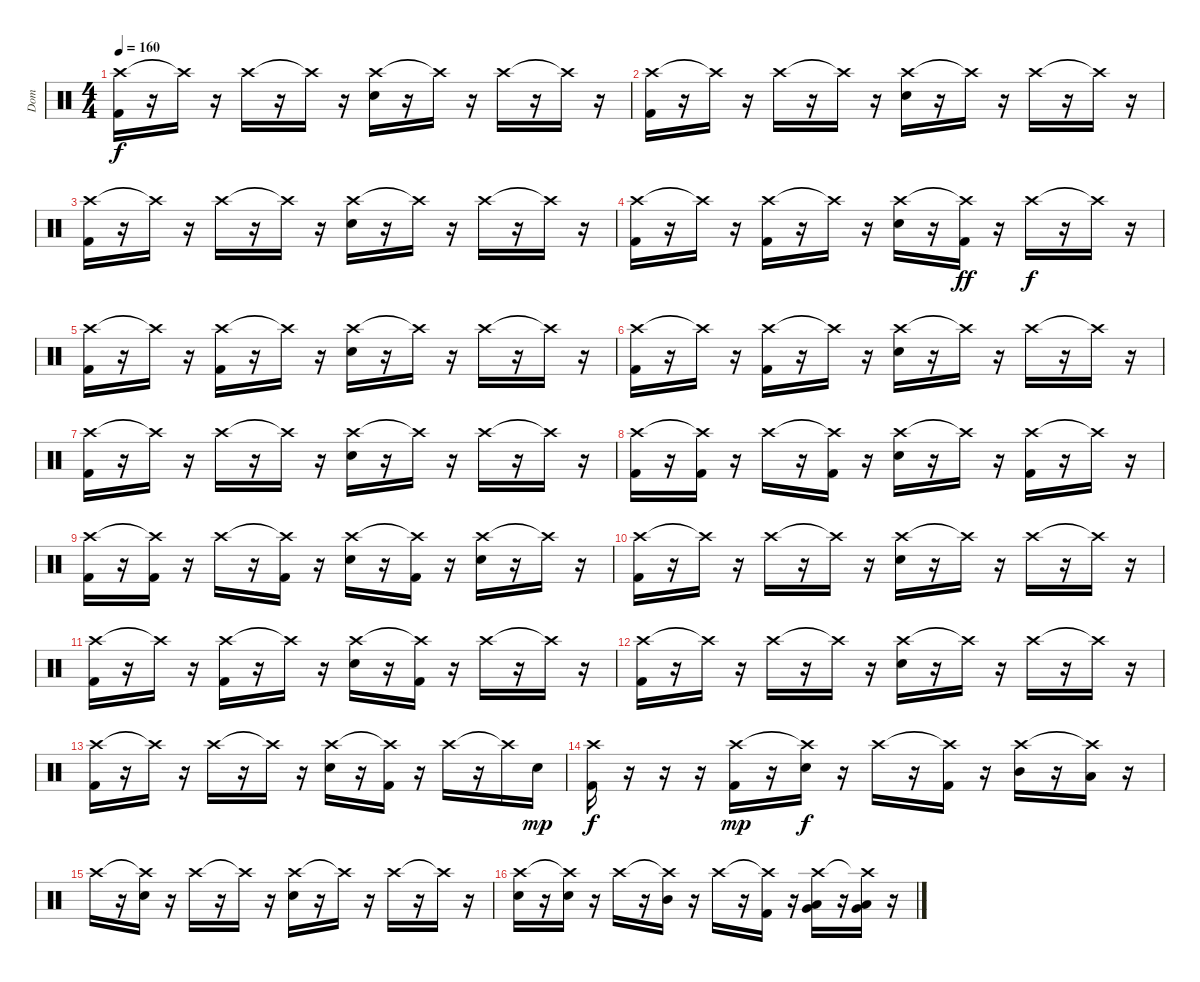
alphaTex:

\track ("Dom" "Dom") {instrument percussion}
\staff {score}
\articulation defaults
\ts (4 4)
\tempo 160
\clef neutral
\ks c
("Crash high (hit)" "Kick (hit) 2").16{dy f} r.16 "Crash high (hit)"{t}.16 r.16 "Crash high (hit)".16 r.16 "Crash high (hit)"{t}.16 r.16 ("Crash high (hit)" "Electric Snare (hit)").16 r.16 "Crash high (hit)"{t}.16 r.16 "Crash high (hit)".16 r.16 "Crash high (hit)"{t}.16 r.16 |
("Crash high (hit)" "Kick (hit) 2").16 r.16 "Crash high (hit)"{t}.16 r.16 "Crash high (hit)".16 r.16 "Crash high (hit)"{t}.16 r.16 ("Crash high (hit)" "Electric Snare (hit)").16 r.16 "Crash high (hit)"{t}.16 r.16 "Crash high (hit)".16 r.16 "Crash high (hit)"{t}.16 r.16 |
("Crash high (hit)" "Kick (hit) 2").16 r.16 "Crash high (hit)"{t}.16 r.16 "Crash high (hit)".16 r.16 "Crash high (hit)"{t}.16 r.16 ("Crash high (hit)" "Electric Snare (hit)").16 r.16 "Crash high (hit)"{t}.16 r.16 "Crash high (hit)".16 r.16 "Crash high (hit)"{t}.16 r.16 |
("Crash high (hit)" "Kick (hit) 2").16 r.16 "Crash high (hit)"{t}.16 r.16 ("Crash high (hit)" "Kick (hit) 2").16 r.16 "Crash high (hit)"{t}.16 r.16 ("Crash high (hit)" "Electric Snare (hit)").16 r.16 ("Crash high (hit)"{t} "Kick (hit) 2").16{dy ff} r.16 "Crash high (hit)".16{dy f} r.16 "Crash high (hit)"{t}.16 r.16 |
("Crash high (hit)" "Kick (hit) 2").16 r.16 "Crash high (hit)"{t}.16 r.16 ("Crash high (hit)" "Kick (hit) 2").16 r.16 "Crash high (hit)"{t}.16 r.16 ("Crash high (hit)" "Electric Snare (hit)").16 r.16 "Crash high (hit)"{t}.16 r.16 "Crash high (hit)".16 r.16 "Crash high (hit)"{t}.16 r.16 |
("Crash high (hit)" "Kick (hit) 2").16 r.16 "Crash high (hit)"{t}.16 r.16 ("Crash high (hit)" "Kick (hit) 2").16 r.16 "Crash high (hit)"{t}.16 r.16 ("Crash high (hit)" "Electric Snare (hit)").16 r.16 "Crash high (hit)"{t}.16 r.16 "Crash high (hit)".16 r.16 "Crash high (hit)"{t}.16 r.16 |
("Crash high (hit)" "Kick (hit) 2").16 r.16 "Crash high (hit)"{t}.16 r.16 "Crash high (hit)".16 r.16 "Crash high (hit)"{t}.16 r.16 ("Crash high (hit)" "Electric Snare (hit)").16 r.16 "Crash high (hit)"{t}.16 r.16 "Crash high (hit)".16 r.16 "Crash high (hit)"{t}.16 r.16 |
("Crash high (hit)" "Kick (hit) 2").16 r.16 ("Crash high (hit)"{t} "Kick (hit) 2").16 r.16 "Crash high (hit)".16 r.16 ("Crash high (hit)"{t} "Kick (hit) 2").16 r.16 ("Crash high (hit)" "Electric Snare (hit)").16 r.16 "Crash high (hit)"{t}.16 r.16 ("Crash high (hit)" "Kick (hit) 2").16 r.16 "Crash high (hit)"{t}.16 r.16 |
("Crash high (hit)" "Kick (hit) 2").16 r.16 ("Crash high (hit)"{t} "Kick (hit) 2").16 r.16 "Crash high (hit)".16 r.16 ("Crash high (hit)"{t} "Kick (hit) 2").16 r.16 ("Crash high (hit)" "Electric Snare (hit)").16 r.16 ("Crash high (hit)"{t} "Kick (hit) 2").16 r.16 ("Crash high (hit)" "Electric Snare (hit)").16 r.16 "Crash high (hit)"{t}.16 r.16 |
("Crash high (hit)" "Kick (hit) 2").16 r.16 "Crash high (hit)"{t}.16 r.16 "Crash high (hit)".16 r.16 "Crash high (hit)"{t}.16 r.16 ("Crash high (hit)" "Electric Snare (hit)").16 r.16 "Crash high (hit)"{t}.16 r.16 "Crash high (hit)".16 r.16 "Crash high (hit)"{t}.16 r.16 |
("Crash high (hit)" "Kick (hit) 2").16 r.16 "Crash high (hit)"{t}.16 r.16 ("Crash high (hit)" "Kick (hit) 2").16 r.16 "Crash high (hit)"{t}.16 r.16 ("Crash high (hit)" "Electric Snare (hit)").16 r.16 ("Crash high (hit)"{t} "Kick (hit) 2").16 r.16 "Crash high (hit)".16 r.16 "Crash high (hit)"{t}.16 r.16 |
("Crash high (hit)" "Kick (hit) 2").16 r.16 "Crash high (hit)"{t}.16 r.16 "Crash high (hit)".16 r.16 "Crash high (hit)"{t}.16 r.16 ("Crash high (hit)" "Electric Snare (hit)").16 r.16 "Crash high (hit)"{t}.16 r.16 "Crash high (hit)".16 r.16 "Crash high (hit)"{t}.16 r.16 |
("Crash high (hit)" "Kick (hit) 2").16 r.16 "Crash high (hit)"{t}.16 r.16 "Crash high (hit)".16 r.16 "Crash high (hit)"{t}.16 r.16 ("Crash high (hit)" "Electric Snare (hit)").16 r.16 ("Crash high (hit)"{t} "Kick (hit) 2").16 r.16 "Crash high (hit)".16 r.16 "Crash high (hit)"{t}.16 "Electric Snare (hit)".16{dy mp} |
("Crash high (hit)" "Kick (hit) 2").16{dy f} r.16 r.16 r.16 ("Crash high (hit)" "Kick (hit) 2").16{dy mp} r.16 ("Crash high (hit)"{t} "Electric Snare (hit)").16{dy f} r.16 "Crash high (hit)".16 r.16 ("Crash high (hit)"{t} "Kick (hit) 2").16 r.16 ("Crash high (hit)" "Mid Tom (hit)").16 r.16 ("Crash high (hit)"{t} "Low Tom (hit)").16 r.16 |
"Crash high (hit)".16 r.16 ("Crash high (hit)"{t} "Electric Snare (hit)").16 r.16 "Crash high (hit)".16 r.16 "Crash high (hit)"{t}.16 r.16 ("Crash high (hit)" "Electric Snare (hit)").16 r.16 "Crash high (hit)"{t}.16 r.16 "Crash high (hit)".16 r.16 "Crash high (hit)"{t}.16 r.16 |
("Crash high (hit)" "Electric Snare (hit)").16 r.16 ("Crash high (hit)"{t} "Electric Snare (hit)").16 r.16 "Crash high (hit)".16 r.16 ("Crash high (hit)"{t} "Mid Tom (hit)").16 r.16 "Crash high (hit)".16 r.16 ("Crash high (hit)"{t} "Kick (hit) 2").16 r.16 ("Crash high (hit)" "Low Tom (hit)" "Very Low Tom (hit)").16 r.16 ("Crash high (hit)"{t} "Low Tom (hit)" "Very Low Tom (hit)").16 r.16
